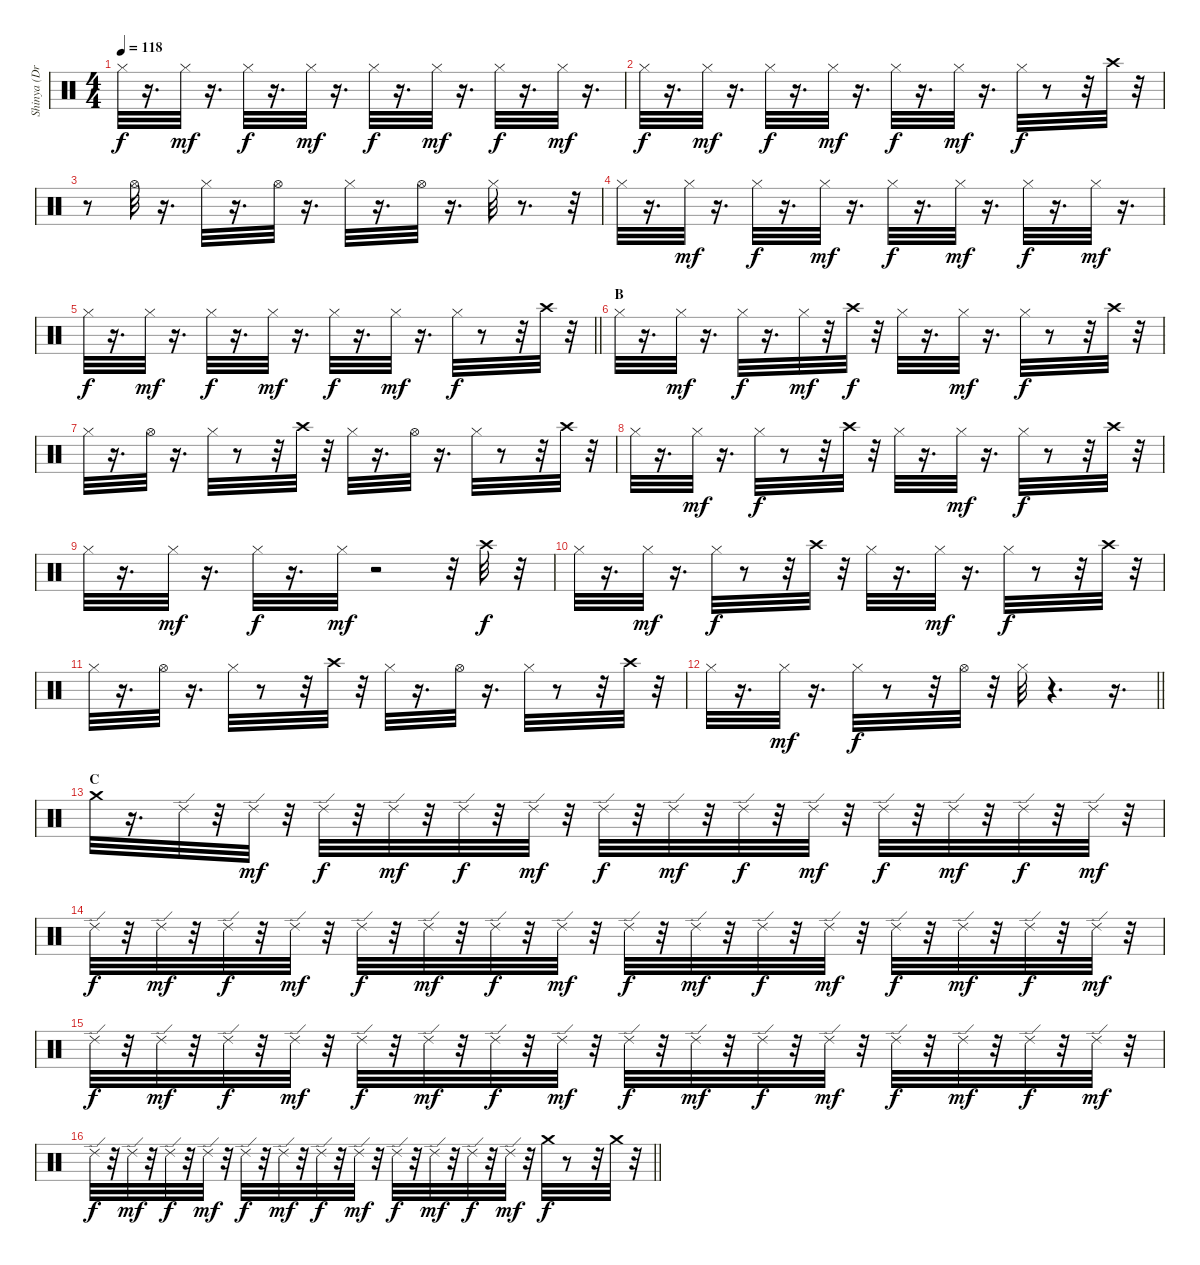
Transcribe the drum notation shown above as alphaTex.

\track ("Shinya (Drums)" "Shinya (Dr") {instrument percussion}
\staff {score}
\articulation defaults
\ts (4 4)
\tempo 118
\clef neutral
\ks c "Hi-Hat (closed)".32{dy f}
r.16{d} "Hi-Hat (closed)".32{dy mf} r.16{d} "Hi-Hat (closed)".32{dy f} r.16{d} "Hi-Hat (closed)".32{dy mf} r.16{d} "Hi-Hat (closed)".32{dy f} r.16{d} "Hi-Hat (closed)".32{dy mf} r.16{d} "Hi-Hat (closed)".32{dy f} r.16{d} "Hi-Hat (closed)".32{dy mf} r.16{d} |
"Hi-Hat (closed)".32{dy f} r.16{d} "Hi-Hat (closed)".32{dy mf} r.16{d} "Hi-Hat (closed)".32{dy f} r.16{d} "Hi-Hat (closed)".32{dy mf} r.16{d} "Hi-Hat (closed)".32{dy f} r.16{d} "Hi-Hat (closed)".32{dy mf} r.16{d} "Hi-Hat (closed)".32{dy f} r.8 r.32 "Crash high (hit)".32 r.32 |
r.8 "Hi-Hat (open)".32 r.16{d} "Hi-Hat (closed)".32 r.16{d} "Hi-Hat (open)".32 r.16{d} "Hi-Hat (closed)".32 r.16{d} "Hi-Hat (open)".32 r.16{d} "Hi-Hat (closed)".32 r.8{d} r.32 |
"Hi-Hat (closed)".32 r.16{d} "Hi-Hat (closed)".32{dy mf} r.16{d} "Hi-Hat (closed)".32{dy f} r.16{d} "Hi-Hat (closed)".32{dy mf} r.16{d} "Hi-Hat (closed)".32{dy f} r.16{d} "Hi-Hat (closed)".32{dy mf} r.16{d} "Hi-Hat (closed)".32{dy f} r.16{d} "Hi-Hat (closed)".32{dy mf} r.16{d} |
\barLineRight lightlight "Hi-Hat (closed)".32{dy f}
r.16{d} "Hi-Hat (closed)".32{dy mf} r.16{d} "Hi-Hat (closed)".32{dy f} r.16{d} "Hi-Hat (closed)".32{dy mf} r.16{d} "Hi-Hat (closed)".32{dy f} r.16{d} "Hi-Hat (closed)".32{dy mf} r.16{d} "Hi-Hat (closed)".32{dy f} r.8 r.32 "Crash high (hit)".32 r.32 |
\section ("" "B")
"Hi-Hat (closed)".32 r.16{d} "Hi-Hat (closed)".32{dy mf} r.16{d} "Hi-Hat (closed)".32{dy f} r.16{d} "Hi-Hat (closed)".32{dy mf} r.32 "Crash high (hit)".32{dy f} r.32 "Hi-Hat (closed)".32 r.16{d} "Hi-Hat (closed)".32{dy mf} r.16{d} "Hi-Hat (closed)".32{dy f} r.8 r.32 "Crash high (hit)".32 r.32 |
"Hi-Hat (closed)".32 r.16{d} "Hi-Hat (open)".32 r.16{d} "Hi-Hat (closed)".32 r.8 r.32 "Crash high (hit)".32 r.32 "Hi-Hat (closed)".32 r.16{d} "Hi-Hat (open)".32 r.16{d} "Hi-Hat (closed)".32 r.8 r.32 "Crash high (hit)".32 r.32 |
"Hi-Hat (closed)".32 r.16{d} "Hi-Hat (closed)".32{dy mf} r.16{d} "Hi-Hat (closed)".32{dy f} r.8 r.32 "Crash high (hit)".32 r.32 "Hi-Hat (closed)".32 r.16{d} "Hi-Hat (closed)".32{dy mf} r.16{d} "Hi-Hat (closed)".32{dy f} r.8 r.32 "Crash high (hit)".32 r.32 |
"Hi-Hat (closed)".32 r.16{d} "Hi-Hat (closed)".32{dy mf} r.16{d} "Hi-Hat (closed)".32{dy f} r.16{d} "Hi-Hat (closed)".32{dy mf} r.2 r.32 "Crash high (hit)".32{dy f} r.32 |
"Hi-Hat (closed)".32 r.16{d} "Hi-Hat (closed)".32{dy mf} r.16{d} "Hi-Hat (closed)".32{dy f} r.8 r.32 "Crash high (hit)".32 r.32 "Hi-Hat (closed)".32 r.16{d} "Hi-Hat (closed)".32{dy mf} r.16{d} "Hi-Hat (closed)".32{dy f} r.8 r.32 "Crash high (hit)".32 r.32 |
"Hi-Hat (closed)".32 r.16{d} "Hi-Hat (open)".32 r.16{d} "Hi-Hat (closed)".32 r.8 r.32 "Crash high (hit)".32 r.32 "Hi-Hat (closed)".32 r.16{d} "Hi-Hat (open)".32 r.16{d} "Hi-Hat (closed)".32 r.8 r.32 "Crash high (hit)".32 r.32 |
\barLineRight lightlight "Hi-Hat (closed)".32
r.16{d} "Hi-Hat (closed)".32{dy mf} r.16{d} "Hi-Hat (closed)".32{dy f} r.8 r.32 "Hi-Hat (open)".32 r.32 "Hi-Hat (closed)".32 r.4{d} r.16{d} |
\section ("" "C")
"Crash medium (hit)".32 r.16{d} "Ride (edge) 2".32 r.32 "Ride (edge) 2".32{dy mf} r.32 "Ride (edge) 2".32{dy f} r.32 "Ride (edge) 2".32{dy mf} r.32 "Ride (edge) 2".32{dy f} r.32 "Ride (edge) 2".32{dy mf} r.32 "Ride (edge) 2".32{dy f} r.32 "Ride (edge) 2".32{dy mf} r.32 "Ride (edge) 2".32{dy f} r.32 "Ride (edge) 2".32{dy mf} r.32 "Ride (edge) 2".32{dy f} r.32 "Ride (edge) 2".32{dy mf} r.32 "Ride (edge) 2".32{dy f} r.32 "Ride (edge) 2".32{dy mf} r.32 |
"Ride (edge) 2".32{dy f} r.32 "Ride (edge) 2".32{dy mf} r.32 "Ride (edge) 2".32{dy f} r.32 "Ride (edge) 2".32{dy mf} r.32 "Ride (edge) 2".32{dy f} r.32 "Ride (edge) 2".32{dy mf} r.32 "Ride (edge) 2".32{dy f} r.32 "Ride (edge) 2".32{dy mf} r.32 "Ride (edge) 2".32{dy f} r.32 "Ride (edge) 2".32{dy mf} r.32 "Ride (edge) 2".32{dy f} r.32 "Ride (edge) 2".32{dy mf} r.32 "Ride (edge) 2".32{dy f} r.32 "Ride (edge) 2".32{dy mf} r.32 "Ride (edge) 2".32{dy f} r.32 "Ride (edge) 2".32{dy mf} r.32 |
"Ride (edge) 2".32{dy f} r.32 "Ride (edge) 2".32{dy mf} r.32 "Ride (edge) 2".32{dy f} r.32 "Ride (edge) 2".32{dy mf} r.32 "Ride (edge) 2".32{dy f} r.32 "Ride (edge) 2".32{dy mf} r.32 "Ride (edge) 2".32{dy f} r.32 "Ride (edge) 2".32{dy mf} r.32 "Ride (edge) 2".32{dy f} r.32 "Ride (edge) 2".32{dy mf} r.32 "Ride (edge) 2".32{dy f} r.32 "Ride (edge) 2".32{dy mf} r.32 "Ride (edge) 2".32{dy f} r.32 "Ride (edge) 2".32{dy mf} r.32 "Ride (edge) 2".32{dy f} r.32 "Ride (edge) 2".32{dy mf} r.32 |
\barLineRight lightlight "Ride (edge) 2".32{dy f}
r.32 "Ride (edge) 2".32{dy mf} r.32 "Ride (edge) 2".32{dy f} r.32 "Ride (edge) 2".32{dy mf} r.32 "Ride (edge) 2".32{dy f} r.32 "Ride (edge) 2".32{dy mf} r.32 "Ride (edge) 2".32{dy f} r.32 "Ride (edge) 2".32{dy mf} r.32 "Ride (edge) 2".32{dy f} r.32 "Ride (edge) 2".32{dy mf} r.32 "Ride (edge) 2".32{dy f} r.32 "Ride (edge) 2".32{dy mf} r.32 "Crash medium (hit)".32{dy f} r.8 r.32 "Crash medium (hit)".32 r.32
